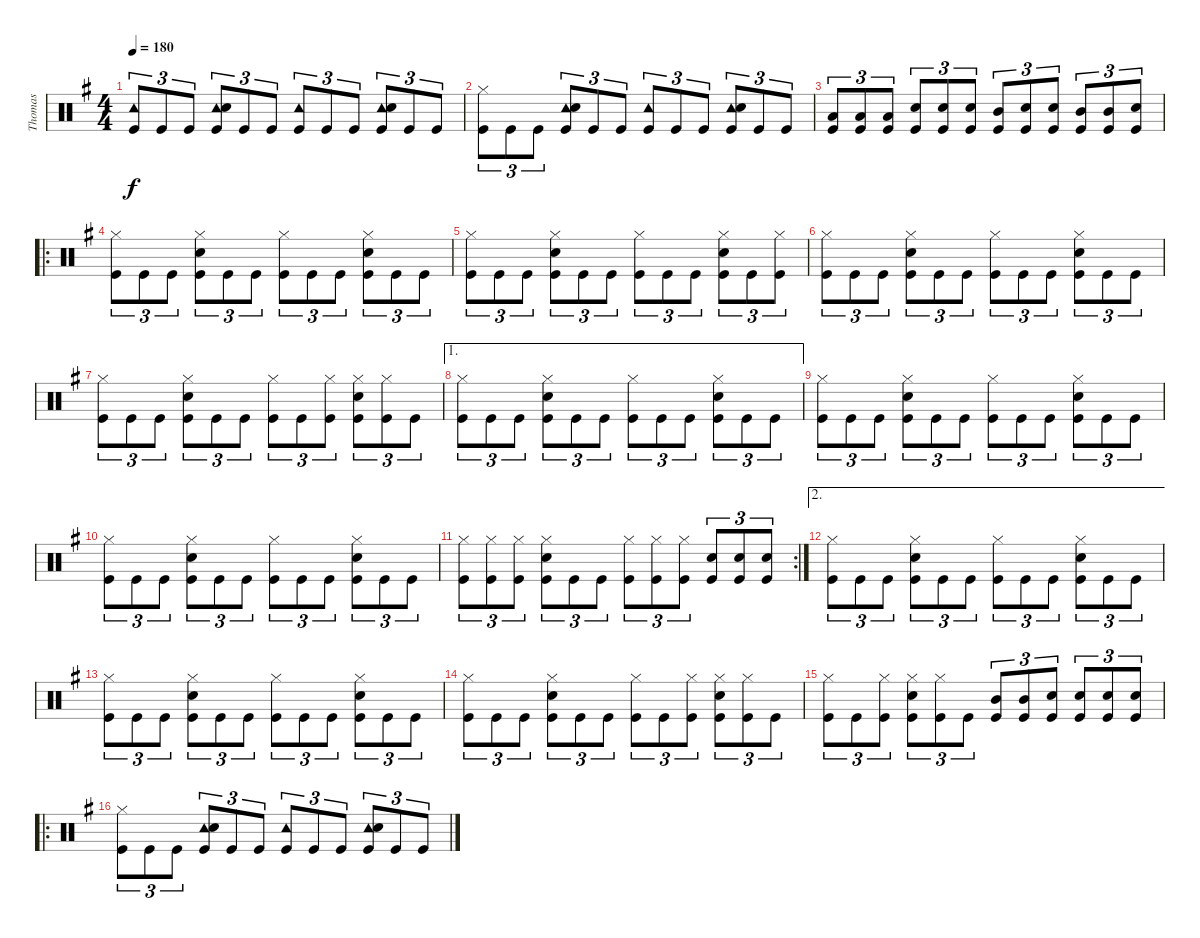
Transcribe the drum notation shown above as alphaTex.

\track ("Thomas" "Thomas") {instrument percussion}
\staff {score}
\articulation defaults
\ts (4 4)
\tempo 180
\clef neutral
\ks g
("Tambourine (hit)" "Kick (hit)").8{tu (3 2) dy f} "Kick (hit)".8{tu (3 2)} "Kick (hit)".8{tu (3 2)} ("Tambourine (hit)" "Snare (hit) 2" "Kick (hit)").8{tu (3 2)} "Kick (hit)".8{tu (3 2)} "Kick (hit)".8{tu (3 2)} ("Tambourine (hit)" "Kick (hit)").8{tu (3 2)} "Kick (hit)".8{tu (3 2)} "Kick (hit)".8{tu (3 2)} ("Tambourine (hit)" "Snare (hit) 2" "Kick (hit)").8{tu (3 2)} "Kick (hit)".8{tu (3 2)} "Kick (hit)".8{tu (3 2)} |
("Hi-Hat (closed)" "Kick (hit)").8{tu (3 2)} "Kick (hit)".8{tu (3 2)} "Kick (hit)".8{tu (3 2)} ("Tambourine (hit)" "Snare (hit) 2" "Kick (hit)").8{tu (3 2)} "Kick (hit)".8{tu (3 2)} "Kick (hit)".8{tu (3 2)} ("Tambourine (hit)" "Kick (hit)").8{tu (3 2)} "Kick (hit)".8{tu (3 2)} "Kick (hit)".8{tu (3 2)} ("Tambourine (hit)" "Snare (hit) 2" "Kick (hit)").8{tu (3 2)} "Kick (hit)".8{tu (3 2)} "Kick (hit)".8{tu (3 2)} |
("Low Tom (hit)" "Kick (hit)").8{tu (3 2)} ("Low Tom (hit)" "Kick (hit)").8{tu (3 2)} ("Low Tom (hit)" "Kick (hit)").8{tu (3 2)} ("Snare (hit) 2" "Kick (hit)").8{tu (3 2)} ("Snare (hit) 2" "Kick (hit)").8{tu (3 2)} ("Snare (hit) 2" "Kick (hit)").8{tu (3 2)} ("Mid Tom (hit)" "Kick (hit)").8{tu (3 2)} ("Snare (hit) 2" "Kick (hit)").8{tu (3 2)} ("Snare (hit) 2" "Kick (hit)").8{tu (3 2)} ("Mid Tom (hit)" "Kick (hit)").8{tu (3 2)} ("Mid Tom (hit)" "Kick (hit)").8{tu (3 2)} ("Snare (hit) 2" "Kick (hit)").8{tu (3 2)} |
\ro
("Hi-Hat (closed)" "Kick (hit)").8{tu (3 2)} "Kick (hit)".8{tu (3 2)} "Kick (hit)".8{tu (3 2)} ("Hi-Hat (closed)" "Snare (hit) 2" "Kick (hit)").8{tu (3 2)} "Kick (hit)".8{tu (3 2)} "Kick (hit)".8{tu (3 2)} ("Hi-Hat (closed)" "Kick (hit)").8{tu (3 2)} "Kick (hit)".8{tu (3 2)} "Kick (hit)".8{tu (3 2)} ("Hi-Hat (closed)" "Snare (hit) 2" "Kick (hit)").8{tu (3 2)} "Kick (hit)".8{tu (3 2)} "Kick (hit)".8{tu (3 2)} |
("Hi-Hat (closed)" "Kick (hit)").8{tu (3 2)} "Kick (hit)".8{tu (3 2)} "Kick (hit)".8{tu (3 2)} ("Hi-Hat (closed)" "Snare (hit) 2" "Kick (hit)").8{tu (3 2)} "Kick (hit)".8{tu (3 2)} "Kick (hit)".8{tu (3 2)} ("Hi-Hat (closed)" "Kick (hit)").8{tu (3 2)} "Kick (hit)".8{tu (3 2)} "Kick (hit)".8{tu (3 2)} ("Hi-Hat (closed)" "Snare (hit) 2" "Kick (hit)").8{tu (3 2)} "Kick (hit)".8{tu (3 2)} ("Hi-Hat (closed)" "Kick (hit)").8{tu (3 2)} |
("Hi-Hat (closed)" "Kick (hit)").8{tu (3 2)} "Kick (hit)".8{tu (3 2)} "Kick (hit)".8{tu (3 2)} ("Hi-Hat (closed)" "Snare (hit) 2" "Kick (hit)").8{tu (3 2)} "Kick (hit)".8{tu (3 2)} "Kick (hit)".8{tu (3 2)} ("Hi-Hat (closed)" "Kick (hit)").8{tu (3 2)} "Kick (hit)".8{tu (3 2)} "Kick (hit)".8{tu (3 2)} ("Hi-Hat (closed)" "Snare (hit) 2" "Kick (hit)").8{tu (3 2)} "Kick (hit)".8{tu (3 2)} "Kick (hit)".8{tu (3 2)} |
("Hi-Hat (closed)" "Kick (hit)").8{tu (3 2)} "Kick (hit)".8{tu (3 2)} "Kick (hit)".8{tu (3 2)} ("Hi-Hat (closed)" "Snare (hit) 2" "Kick (hit)").8{tu (3 2)} "Kick (hit)".8{tu (3 2)} "Kick (hit)".8{tu (3 2)} ("Hi-Hat (closed)" "Kick (hit)").8{tu (3 2)} "Kick (hit)".8{tu (3 2)} ("Hi-Hat (closed)" "Kick (hit)").8{tu (3 2)} ("Hi-Hat (closed)" "Snare (hit) 2" "Kick (hit)").8{tu (3 2)} ("Hi-Hat (closed)" "Kick (hit)").8{tu (3 2)} "Kick (hit)".8{tu (3 2)} |
\ae 1
("Hi-Hat (closed)" "Kick (hit)").8{tu (3 2)} "Kick (hit)".8{tu (3 2)} "Kick (hit)".8{tu (3 2)} ("Hi-Hat (closed)" "Snare (hit) 2" "Kick (hit)").8{tu (3 2)} "Kick (hit)".8{tu (3 2)} "Kick (hit)".8{tu (3 2)} ("Hi-Hat (closed)" "Kick (hit)").8{tu (3 2)} "Kick (hit)".8{tu (3 2)} "Kick (hit)".8{tu (3 2)} ("Hi-Hat (closed)" "Snare (hit) 2" "Kick (hit)").8{tu (3 2)} "Kick (hit)".8{tu (3 2)} "Kick (hit)".8{tu (3 2)} |
("Hi-Hat (closed)" "Kick (hit)").8{tu (3 2)} "Kick (hit)".8{tu (3 2)} "Kick (hit)".8{tu (3 2)} ("Hi-Hat (closed)" "Snare (hit) 2" "Kick (hit)").8{tu (3 2)} "Kick (hit)".8{tu (3 2)} "Kick (hit)".8{tu (3 2)} ("Hi-Hat (closed)" "Kick (hit)").8{tu (3 2)} "Kick (hit)".8{tu (3 2)} "Kick (hit)".8{tu (3 2)} ("Hi-Hat (closed)" "Snare (hit) 2" "Kick (hit)").8{tu (3 2)} "Kick (hit)".8{tu (3 2)} "Kick (hit)".8{tu (3 2)} |
("Hi-Hat (closed)" "Kick (hit)").8{tu (3 2)} "Kick (hit)".8{tu (3 2)} "Kick (hit)".8{tu (3 2)} ("Hi-Hat (closed)" "Snare (hit) 2" "Kick (hit)").8{tu (3 2)} "Kick (hit)".8{tu (3 2)} "Kick (hit)".8{tu (3 2)} ("Hi-Hat (closed)" "Kick (hit)").8{tu (3 2)} "Kick (hit)".8{tu (3 2)} "Kick (hit)".8{tu (3 2)} ("Hi-Hat (closed)" "Snare (hit) 2" "Kick (hit)").8{tu (3 2)} "Kick (hit)".8{tu (3 2)} "Kick (hit)".8{tu (3 2)} |
\rc 2
("Hi-Hat (closed)" "Kick (hit)").8{tu (3 2)} ("Hi-Hat (closed)" "Kick (hit)").8{tu (3 2)} ("Hi-Hat (closed)" "Kick (hit)").8{tu (3 2)} ("Hi-Hat (closed)" "Snare (hit) 2" "Kick (hit)").8{tu (3 2)} "Kick (hit)".8{tu (3 2)} "Kick (hit)".8{tu (3 2)} ("Hi-Hat (closed)" "Kick (hit)").8{tu (3 2)} ("Hi-Hat (closed)" "Kick (hit)").8{tu (3 2)} ("Hi-Hat (closed)" "Kick (hit)").8{tu (3 2)} ("Snare (hit) 2" "Kick (hit)").8{tu (3 2)} ("Snare (hit) 2" "Kick (hit)").8{tu (3 2)} ("Snare (hit) 2" "Kick (hit)").8{tu (3 2)} |
\ae 2
("Hi-Hat (closed)" "Kick (hit)").8{tu (3 2)} "Kick (hit)".8{tu (3 2)} "Kick (hit)".8{tu (3 2)} ("Hi-Hat (closed)" "Snare (hit) 2" "Kick (hit)").8{tu (3 2)} "Kick (hit)".8{tu (3 2)} "Kick (hit)".8{tu (3 2)} ("Hi-Hat (closed)" "Kick (hit)").8{tu (3 2)} "Kick (hit)".8{tu (3 2)} "Kick (hit)".8{tu (3 2)} ("Hi-Hat (closed)" "Snare (hit) 2" "Kick (hit)").8{tu (3 2)} "Kick (hit)".8{tu (3 2)} "Kick (hit)".8{tu (3 2)} |
("Hi-Hat (closed)" "Kick (hit)").8{tu (3 2)} "Kick (hit)".8{tu (3 2)} "Kick (hit)".8{tu (3 2)} ("Hi-Hat (closed)" "Snare (hit) 2" "Kick (hit)").8{tu (3 2)} "Kick (hit)".8{tu (3 2)} "Kick (hit)".8{tu (3 2)} ("Hi-Hat (closed)" "Kick (hit)").8{tu (3 2)} "Kick (hit)".8{tu (3 2)} "Kick (hit)".8{tu (3 2)} ("Hi-Hat (closed)" "Snare (hit) 2" "Kick (hit)").8{tu (3 2)} "Kick (hit)".8{tu (3 2)} "Kick (hit)".8{tu (3 2)} |
("Hi-Hat (closed)" "Kick (hit)").8{tu (3 2)} "Kick (hit)".8{tu (3 2)} "Kick (hit)".8{tu (3 2)} ("Hi-Hat (closed)" "Snare (hit) 2" "Kick (hit)").8{tu (3 2)} "Kick (hit)".8{tu (3 2)} "Kick (hit)".8{tu (3 2)} ("Hi-Hat (closed)" "Kick (hit)").8{tu (3 2)} "Kick (hit)".8{tu (3 2)} ("Hi-Hat (closed)" "Kick (hit)").8{tu (3 2)} ("Hi-Hat (closed)" "Snare (hit) 2" "Kick (hit)").8{tu (3 2)} ("Hi-Hat (closed)" "Kick (hit)").8{tu (3 2)} "Kick (hit)".8{tu (3 2)} |
("Hi-Hat (closed)" "Kick (hit)").8{tu (3 2)} "Kick (hit)".8{tu (3 2)} ("Hi-Hat (closed)" "Kick (hit)").8{tu (3 2)} ("Hi-Hat (closed)" "Snare (hit) 2" "Kick (hit)").8{tu (3 2)} ("Hi-Hat (closed)" "Kick (hit)").8{tu (3 2)} "Kick (hit)".8{tu (3 2)} ("Mid Tom (hit)" "Kick (hit)").8{tu (3 2)} ("Mid Tom (hit)" "Kick (hit)").8{tu (3 2)} ("Snare (hit) 2" "Kick (hit)").8{tu (3 2)} ("Snare (hit) 2" "Kick (hit)").8{tu (3 2)} ("Snare (hit) 2" "Kick (hit)").8{tu (3 2)} ("Snare (hit) 2" "Kick (hit)").8{tu (3 2)} |
\ro
("Hi-Hat (closed)" "Kick (hit)").8{tu (3 2)} "Kick (hit)".8{tu (3 2)} "Kick (hit)".8{tu (3 2)} ("Tambourine (hit)" "Snare (hit) 2" "Kick (hit)").8{tu (3 2)} "Kick (hit)".8{tu (3 2)} "Kick (hit)".8{tu (3 2)} ("Tambourine (hit)" "Kick (hit)").8{tu (3 2)} "Kick (hit)".8{tu (3 2)} "Kick (hit)".8{tu (3 2)} ("Tambourine (hit)" "Snare (hit) 2" "Kick (hit)").8{tu (3 2)} "Kick (hit)".8{tu (3 2)} "Kick (hit)".8{tu (3 2)}
